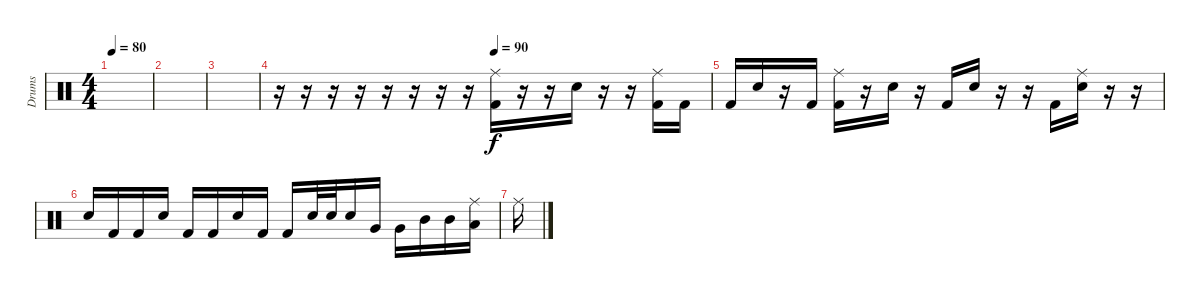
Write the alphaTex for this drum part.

\track ("Drums" "Drums") {instrument percussion}
\staff {score}
\articulation defaults
\ts (4 4)
\tempo 80
\clef neutral
\ks c
|
|
|
\tempo (90 0.5)
r.16 r.16 r.16 r.16 r.16 r.16 r.16 r.16 ("Kick (hit) 2" "Ride (middle)").16 r.16 r.16 "Snare (hit) 2".16 r.16 r.16 ("Kick (hit) 2" "Ride (middle)").16 "Kick (hit) 2".16 |
"Kick (hit) 2".16 "Snare (hit) 2".16 r.16 "Kick (hit) 2".16 ("Ride (middle)" "Kick (hit) 2").16 r.16 "Snare (hit) 2".16 r.16 "Kick (hit) 2".16 "Snare (hit) 2".16 r.16 r.16 "Kick (hit) 2".16 ("Ride (middle)" "Snare (hit) 2").16 r.16 r.16 |
"Snare (hit) 2".16 "Kick (hit) 2".16 "Kick (hit) 2".16 "Snare (hit) 2".16 "Kick (hit) 2".16 "Kick (hit) 2".16 "Snare (hit) 2".16 "Kick (hit) 2".16 "Kick (hit) 2".16 "Snare (hit) 2".32 "Snare (hit) 2".32 "Snare (hit) 2".16 "Very Low Tom (hit)".16 "Very Low Tom (hit)".16 "Mid Tom (hit)".16 "Mid Tom (hit)".16 ("Low Floor Tom (hit)" "Ride (middle)").16 |
"Ride (middle)".16
